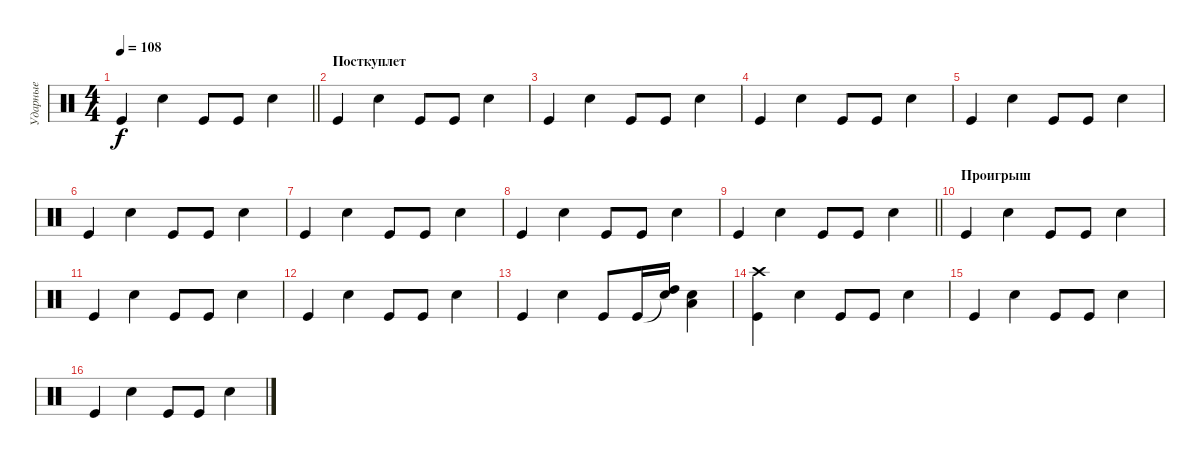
\track ("Ударные" "Ударные") {instrument percussion}
\staff {score}
\articulation defaults
\ts (4 4)
\tempo 108
\clef neutral
\barLineRight lightlight
\ks c "Kick (hit)".4{dy f} "Snare (hit) 2".4 "Kick (hit)".8 "Kick (hit)".8 "Snare (hit) 2".4
|
\section ("" "Посткуплет")
"Kick (hit)".4 "Snare (hit) 2".4 "Kick (hit)".8 "Kick (hit)".8 "Snare (hit) 2".4 |
"Kick (hit)".4 "Snare (hit) 2".4 "Kick (hit)".8 "Kick (hit)".8 "Snare (hit) 2".4 |
"Kick (hit)".4 "Snare (hit) 2".4 "Kick (hit)".8 "Kick (hit)".8 "Snare (hit) 2".4 |
"Kick (hit)".4 "Snare (hit) 2".4 "Kick (hit)".8 "Kick (hit)".8 "Snare (hit) 2".4 |
"Kick (hit)".4 "Snare (hit) 2".4 "Kick (hit)".8 "Kick (hit)".8 "Snare (hit) 2".4 |
"Kick (hit)".4 "Snare (hit) 2".4 "Kick (hit)".8 "Kick (hit)".8 "Snare (hit) 2".4 |
"Kick (hit)".4 "Snare (hit) 2".4 "Kick (hit)".8 "Kick (hit)".8 "Snare (hit) 2".4 |
\barLineRight lightlight "Kick (hit)".4 "Snare (hit) 2".4 "Kick (hit)".8 "Kick (hit)".8 "Snare (hit) 2".4
|
\section ("" "Проигрыш")
"Kick (hit)".4 "Snare (hit) 2".4 "Kick (hit)".8 "Kick (hit)".8 "Snare (hit) 2".4 |
"Kick (hit)".4 "Snare (hit) 2".4 "Kick (hit)".8 "Kick (hit)".8 "Snare (hit) 2".4 |
"Kick (hit)".4 "Snare (hit) 2".4 "Kick (hit)".8 "Kick (hit)".8 "Snare (hit) 2".4 |
"Kick (hit)".4 "Snare (hit) 2".4 "Kick (hit)".8 "Kick (hit)".16 ("Snare (hit) 2"{t} "High Tom (hit)").16 ("Snare (hit) 2" "Low Tom (hit)").4 |
("Kick (hit)" "Crash high (hit)").4 "Snare (hit) 2".4 "Kick (hit)".8 "Kick (hit)".8 "Snare (hit) 2".4 |
"Kick (hit)".4 "Snare (hit) 2".4 "Kick (hit)".8 "Kick (hit)".8 "Snare (hit) 2".4 |
"Kick (hit)".4 "Snare (hit) 2".4 "Kick (hit)".8 "Kick (hit)".8 "Snare (hit) 2".4
